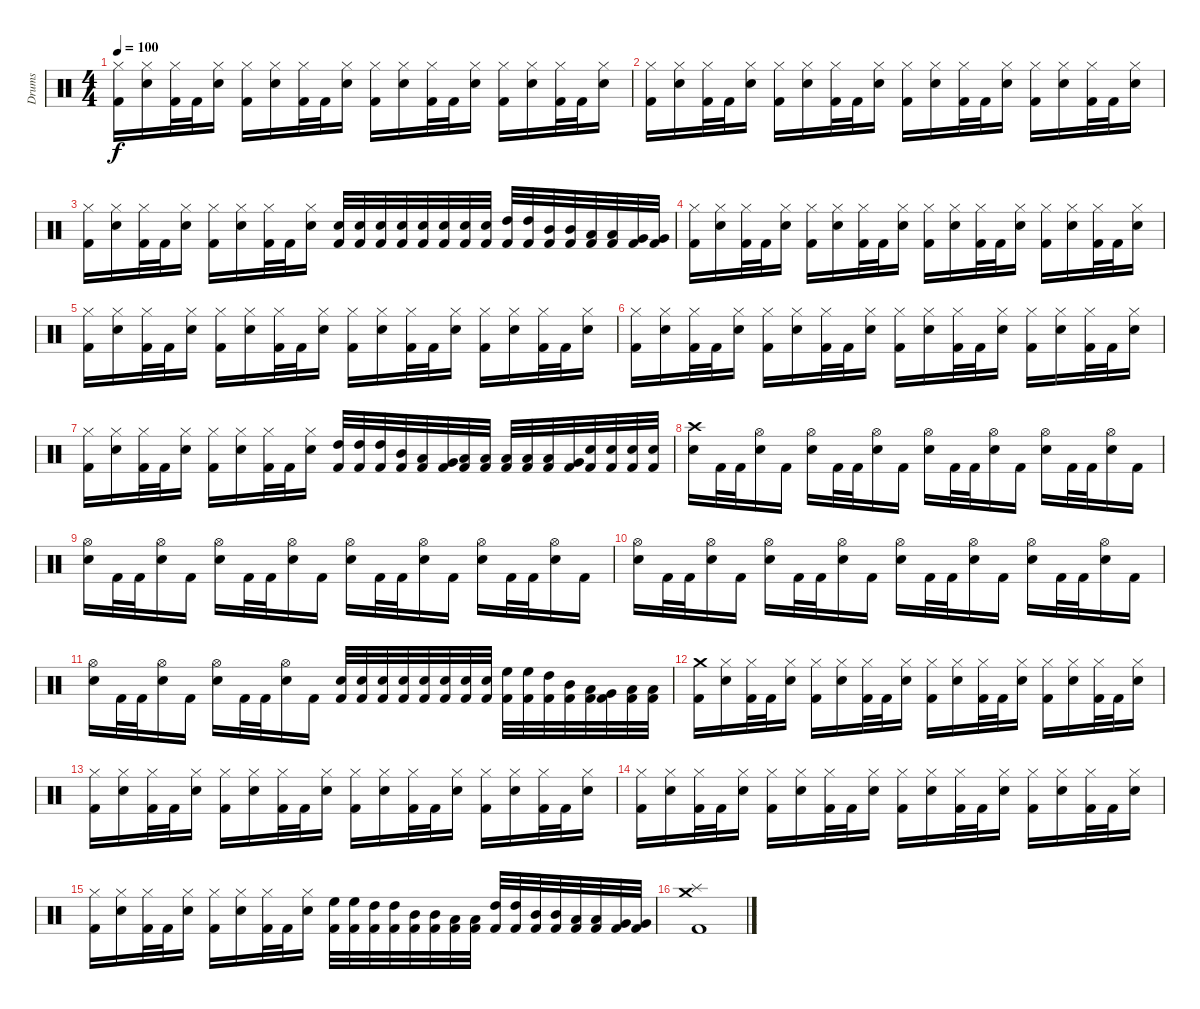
\track ("Drums" "Drums") {instrument percussion}
\staff {score}
\articulation defaults
\ts (4 4)
\tempo 100
\clef neutral
\ks c
("Kick (hit) 2" "Hi-Hat (closed)").16{dy f} ("Electric Snare (hit)" "Hi-Hat (closed)").16 ("Kick (hit) 2" "Hi-Hat (closed)").32 "Kick (hit) 2".32 ("Electric Snare (hit)" "Hi-Hat (closed)").16 ("Kick (hit) 2" "Hi-Hat (closed)").16 ("Electric Snare (hit)" "Hi-Hat (closed)").16 ("Kick (hit) 2" "Hi-Hat (closed)").32 "Kick (hit) 2".32 ("Electric Snare (hit)" "Hi-Hat (closed)").16 ("Kick (hit) 2" "Hi-Hat (closed)").16 ("Electric Snare (hit)" "Hi-Hat (closed)").16 ("Kick (hit) 2" "Hi-Hat (closed)").32 "Kick (hit) 2".32 ("Electric Snare (hit)" "Hi-Hat (closed)").16 ("Kick (hit) 2" "Hi-Hat (closed)").16 ("Electric Snare (hit)" "Hi-Hat (closed)").16 ("Kick (hit) 2" "Hi-Hat (closed)").32 "Kick (hit) 2".32 ("Electric Snare (hit)" "Hi-Hat (closed)").16 |
("Kick (hit) 2" "Hi-Hat (closed)").16 ("Electric Snare (hit)" "Hi-Hat (closed)").16 ("Kick (hit) 2" "Hi-Hat (closed)").32 "Kick (hit) 2".32 ("Electric Snare (hit)" "Hi-Hat (closed)").16 ("Kick (hit) 2" "Hi-Hat (closed)").16 ("Electric Snare (hit)" "Hi-Hat (closed)").16 ("Kick (hit) 2" "Hi-Hat (closed)").32 "Kick (hit) 2".32 ("Electric Snare (hit)" "Hi-Hat (closed)").16 ("Kick (hit) 2" "Hi-Hat (closed)").16 ("Electric Snare (hit)" "Hi-Hat (closed)").16 ("Kick (hit) 2" "Hi-Hat (closed)").32 "Kick (hit) 2".32 ("Electric Snare (hit)" "Hi-Hat (closed)").16 ("Kick (hit) 2" "Hi-Hat (closed)").16 ("Electric Snare (hit)" "Hi-Hat (closed)").16 ("Kick (hit) 2" "Hi-Hat (closed)").32 "Kick (hit) 2".32 ("Electric Snare (hit)" "Hi-Hat (closed)").16 |
("Kick (hit) 2" "Hi-Hat (closed)").16 ("Electric Snare (hit)" "Hi-Hat (closed)").16 ("Kick (hit) 2" "Hi-Hat (closed)").32 "Kick (hit) 2".32 ("Electric Snare (hit)" "Hi-Hat (closed)").16 ("Kick (hit) 2" "Hi-Hat (closed)").16 ("Electric Snare (hit)" "Hi-Hat (closed)").16 ("Kick (hit) 2" "Hi-Hat (closed)").32 "Kick (hit) 2".32 ("Electric Snare (hit)" "Hi-Hat (closed)").16 ("Kick (hit) 2" "Electric Snare (hit)").32 ("Kick (hit) 2" "Electric Snare (hit)").32 ("Kick (hit) 2" "Electric Snare (hit)").32 ("Kick (hit) 2" "Electric Snare (hit)").32 ("Kick (hit) 2" "Electric Snare (hit)").32 ("Kick (hit) 2" "Electric Snare (hit)").32 ("Kick (hit) 2" "Electric Snare (hit)").32 ("Kick (hit) 2" "Electric Snare (hit)").32 ("Kick (hit) 2" "High Tom (hit)").32 ("Kick (hit) 2" "High Tom (hit)").32 ("Kick (hit) 2" "Mid Tom (hit)").32 ("Kick (hit) 2" "Mid Tom (hit)").32 ("Kick (hit) 2" "Low Tom (hit)").32 ("Kick (hit) 2" "Low Tom (hit)").32 ("Kick (hit) 2" "Very Low Tom (hit)").32 ("Kick (hit) 2" "Very Low Tom (hit)").32 |
("Kick (hit) 2" "Hi-Hat (closed)").16 ("Electric Snare (hit)" "Hi-Hat (closed)").16 ("Kick (hit) 2" "Hi-Hat (closed)").32 "Kick (hit) 2".32 ("Electric Snare (hit)" "Hi-Hat (closed)").16 ("Kick (hit) 2" "Hi-Hat (closed)").16 ("Electric Snare (hit)" "Hi-Hat (closed)").16 ("Kick (hit) 2" "Hi-Hat (closed)").32 "Kick (hit) 2".32 ("Electric Snare (hit)" "Hi-Hat (closed)").16 ("Kick (hit) 2" "Hi-Hat (closed)").16 ("Electric Snare (hit)" "Hi-Hat (closed)").16 ("Kick (hit) 2" "Hi-Hat (closed)").32 "Kick (hit) 2".32 ("Electric Snare (hit)" "Hi-Hat (closed)").16 ("Kick (hit) 2" "Hi-Hat (closed)").16 ("Electric Snare (hit)" "Hi-Hat (closed)").16 ("Kick (hit) 2" "Hi-Hat (closed)").32 "Kick (hit) 2".32 ("Electric Snare (hit)" "Hi-Hat (closed)").16 |
("Kick (hit) 2" "Hi-Hat (closed)").16 ("Electric Snare (hit)" "Hi-Hat (closed)").16 ("Kick (hit) 2" "Hi-Hat (closed)").32 "Kick (hit) 2".32 ("Electric Snare (hit)" "Hi-Hat (closed)").16 ("Kick (hit) 2" "Hi-Hat (closed)").16 ("Electric Snare (hit)" "Hi-Hat (closed)").16 ("Kick (hit) 2" "Hi-Hat (closed)").32 "Kick (hit) 2".32 ("Electric Snare (hit)" "Hi-Hat (closed)").16 ("Kick (hit) 2" "Hi-Hat (closed)").16 ("Electric Snare (hit)" "Hi-Hat (closed)").16 ("Kick (hit) 2" "Hi-Hat (closed)").32 "Kick (hit) 2".32 ("Electric Snare (hit)" "Hi-Hat (closed)").16 ("Kick (hit) 2" "Hi-Hat (closed)").16 ("Electric Snare (hit)" "Hi-Hat (closed)").16 ("Kick (hit) 2" "Hi-Hat (closed)").32 "Kick (hit) 2".32 ("Electric Snare (hit)" "Hi-Hat (closed)").16 |
("Kick (hit) 2" "Hi-Hat (closed)").16 ("Electric Snare (hit)" "Hi-Hat (closed)").16 ("Kick (hit) 2" "Hi-Hat (closed)").32 "Kick (hit) 2".32 ("Electric Snare (hit)" "Hi-Hat (closed)").16 ("Kick (hit) 2" "Hi-Hat (closed)").16 ("Electric Snare (hit)" "Hi-Hat (closed)").16 ("Kick (hit) 2" "Hi-Hat (closed)").32 "Kick (hit) 2".32 ("Electric Snare (hit)" "Hi-Hat (closed)").16 ("Kick (hit) 2" "Hi-Hat (closed)").16 ("Electric Snare (hit)" "Hi-Hat (closed)").16 ("Kick (hit) 2" "Hi-Hat (closed)").32 "Kick (hit) 2".32 ("Electric Snare (hit)" "Hi-Hat (closed)").16 ("Kick (hit) 2" "Hi-Hat (closed)").16 ("Electric Snare (hit)" "Hi-Hat (closed)").16 ("Kick (hit) 2" "Hi-Hat (closed)").32 "Kick (hit) 2".32 ("Electric Snare (hit)" "Hi-Hat (closed)").16 |
("Kick (hit) 2" "Hi-Hat (closed)").16 ("Electric Snare (hit)" "Hi-Hat (closed)").16 ("Kick (hit) 2" "Hi-Hat (closed)").32 "Kick (hit) 2".32 ("Electric Snare (hit)" "Hi-Hat (closed)").16 ("Kick (hit) 2" "Hi-Hat (closed)").16 ("Electric Snare (hit)" "Hi-Hat (closed)").16 ("Kick (hit) 2" "Hi-Hat (closed)").32 "Kick (hit) 2".32 ("Electric Snare (hit)" "Hi-Hat (closed)").16 ("Kick (hit) 2" "High Tom (hit)").32 ("Kick (hit) 2" "High Tom (hit)").32 ("Kick (hit) 2" "High Tom (hit)").32 ("Kick (hit) 2" "Mid Tom (hit)").32 ("Kick (hit) 2" "Low Tom (hit)").32 ("Kick (hit) 2" "Very Low Tom (hit)").32 ("Kick (hit) 2" "Low Floor Tom (hit)").32 ("Kick (hit) 2" "Low Floor Tom (hit)").32 ("Kick (hit) 2" "Low Tom (hit)").32 ("Kick (hit) 2" "Low Tom (hit)").32 ("Kick (hit) 2" "Low Tom (hit)").32 ("Kick (hit) 2" "Very Low Tom (hit)").32 ("Kick (hit) 2" "Electric Snare (hit)").32 ("Kick (hit) 2" "Electric Snare (hit)").32 ("Kick (hit) 2" "Electric Snare (hit)").32 ("Kick (hit) 2" "Electric Snare (hit)").32 |
\section ("" "")
("Electric Snare (hit)" "Crash high (hit)").16 "Kick (hit) 2".32 "Kick (hit) 2".32 ("Electric Snare (hit)" "Hi-Hat (open)").16 "Kick (hit) 2".16 ("Electric Snare (hit)" "Hi-Hat (open)").16 "Kick (hit) 2".32 "Kick (hit) 2".32 ("Electric Snare (hit)" "Hi-Hat (open)").16 "Kick (hit) 2".16 ("Electric Snare (hit)" "Hi-Hat (open)").16 "Kick (hit) 2".32 "Kick (hit) 2".32 ("Electric Snare (hit)" "Hi-Hat (open)").16 "Kick (hit) 2".16 ("Electric Snare (hit)" "Hi-Hat (open)").16 "Kick (hit) 2".32 "Kick (hit) 2".32 ("Electric Snare (hit)" "Hi-Hat (open)").16 "Kick (hit) 2".16 |
("Electric Snare (hit)" "Hi-Hat (open)").16 "Kick (hit) 2".32 "Kick (hit) 2".32 ("Electric Snare (hit)" "Hi-Hat (open)").16 "Kick (hit) 2".16 ("Electric Snare (hit)" "Hi-Hat (open)").16 "Kick (hit) 2".32 "Kick (hit) 2".32 ("Electric Snare (hit)" "Hi-Hat (open)").16 "Kick (hit) 2".16 ("Electric Snare (hit)" "Hi-Hat (open)").16 "Kick (hit) 2".32 "Kick (hit) 2".32 ("Electric Snare (hit)" "Hi-Hat (open)").16 "Kick (hit) 2".16 ("Electric Snare (hit)" "Hi-Hat (open)").16 "Kick (hit) 2".32 "Kick (hit) 2".32 ("Electric Snare (hit)" "Hi-Hat (open)").16 "Kick (hit) 2".16 |
("Electric Snare (hit)" "Hi-Hat (open)").16 "Kick (hit) 2".32 "Kick (hit) 2".32 ("Electric Snare (hit)" "Hi-Hat (open)").16 "Kick (hit) 2".16 ("Electric Snare (hit)" "Hi-Hat (open)").16 "Kick (hit) 2".32 "Kick (hit) 2".32 ("Electric Snare (hit)" "Hi-Hat (open)").16 "Kick (hit) 2".16 ("Electric Snare (hit)" "Hi-Hat (open)").16 "Kick (hit) 2".32 "Kick (hit) 2".32 ("Electric Snare (hit)" "Hi-Hat (open)").16 "Kick (hit) 2".16 ("Electric Snare (hit)" "Hi-Hat (open)").16 "Kick (hit) 2".32 "Kick (hit) 2".32 ("Electric Snare (hit)" "Hi-Hat (open)").16 "Kick (hit) 2".16 |
("Electric Snare (hit)" "Hi-Hat (open)").16 "Kick (hit) 2".32 "Kick (hit) 2".32 ("Electric Snare (hit)" "Hi-Hat (open)").16 "Kick (hit) 2".16 ("Electric Snare (hit)" "Hi-Hat (open)").16 "Kick (hit) 2".32 "Kick (hit) 2".32 ("Electric Snare (hit)" "Hi-Hat (open)").16 "Kick (hit) 2".16 ("Kick (hit) 2" "Electric Snare (hit)").32 ("Kick (hit) 2" "Electric Snare (hit)").32 ("Kick (hit) 2" "Electric Snare (hit)").32 ("Kick (hit) 2" "Electric Snare (hit)").32 ("Kick (hit) 2" "Electric Snare (hit)").32 ("Kick (hit) 2" "Electric Snare (hit)").32 ("Kick (hit) 2" "Electric Snare (hit)").32 ("Kick (hit) 2" "Electric Snare (hit)").32 ("Kick (hit) 2" "High Floor Tom (hit)").32 ("Kick (hit) 2" "High Floor Tom (hit)").32 ("Kick (hit) 2" "High Tom (hit)").32 ("Kick (hit) 2" "Mid Tom (hit)").32 ("Kick (hit) 2" "Low Tom (hit)").32 ("Kick (hit) 2" "Very Low Tom (hit)").32 ("Kick (hit) 2" "Low Floor Tom (hit)").32 ("Kick (hit) 2" "Low Floor Tom (hit)").32 |
\section ("" "")
("Kick (hit) 2" "Crash medium (hit)").16 ("Electric Snare (hit)" "Hi-Hat (closed)").16 ("Kick (hit) 2" "Hi-Hat (closed)").32 "Kick (hit) 2".32 ("Electric Snare (hit)" "Hi-Hat (closed)").16 ("Kick (hit) 2" "Hi-Hat (closed)").16 ("Electric Snare (hit)" "Hi-Hat (closed)").16 ("Kick (hit) 2" "Hi-Hat (closed)").32 "Kick (hit) 2".32 ("Electric Snare (hit)" "Hi-Hat (closed)").16 ("Kick (hit) 2" "Hi-Hat (closed)").16 ("Electric Snare (hit)" "Hi-Hat (closed)").16 ("Kick (hit) 2" "Hi-Hat (closed)").32 "Kick (hit) 2".32 ("Electric Snare (hit)" "Hi-Hat (closed)").16 ("Kick (hit) 2" "Hi-Hat (closed)").16 ("Electric Snare (hit)" "Hi-Hat (closed)").16 ("Kick (hit) 2" "Hi-Hat (closed)").32 "Kick (hit) 2".32 ("Electric Snare (hit)" "Hi-Hat (closed)").16 |
("Kick (hit) 2" "Hi-Hat (closed)").16 ("Electric Snare (hit)" "Hi-Hat (closed)").16 ("Kick (hit) 2" "Hi-Hat (closed)").32 "Kick (hit) 2".32 ("Electric Snare (hit)" "Hi-Hat (closed)").16 ("Kick (hit) 2" "Hi-Hat (closed)").16 ("Electric Snare (hit)" "Hi-Hat (closed)").16 ("Kick (hit) 2" "Hi-Hat (closed)").32 "Kick (hit) 2".32 ("Electric Snare (hit)" "Hi-Hat (closed)").16 ("Kick (hit) 2" "Hi-Hat (closed)").16 ("Electric Snare (hit)" "Hi-Hat (closed)").16 ("Kick (hit) 2" "Hi-Hat (closed)").32 "Kick (hit) 2".32 ("Electric Snare (hit)" "Hi-Hat (closed)").16 ("Kick (hit) 2" "Hi-Hat (closed)").16 ("Electric Snare (hit)" "Hi-Hat (closed)").16 ("Kick (hit) 2" "Hi-Hat (closed)").32 "Kick (hit) 2".32 ("Electric Snare (hit)" "Hi-Hat (closed)").16 |
("Kick (hit) 2" "Hi-Hat (closed)").16 ("Electric Snare (hit)" "Hi-Hat (closed)").16 ("Kick (hit) 2" "Hi-Hat (closed)").32 "Kick (hit) 2".32 ("Electric Snare (hit)" "Hi-Hat (closed)").16 ("Kick (hit) 2" "Hi-Hat (closed)").16 ("Electric Snare (hit)" "Hi-Hat (closed)").16 ("Kick (hit) 2" "Hi-Hat (closed)").32 "Kick (hit) 2".32 ("Electric Snare (hit)" "Hi-Hat (closed)").16 ("Kick (hit) 2" "Hi-Hat (closed)").16 ("Electric Snare (hit)" "Hi-Hat (closed)").16 ("Kick (hit) 2" "Hi-Hat (closed)").32 "Kick (hit) 2".32 ("Electric Snare (hit)" "Hi-Hat (closed)").16 ("Kick (hit) 2" "Hi-Hat (closed)").16 ("Electric Snare (hit)" "Hi-Hat (closed)").16 ("Kick (hit) 2" "Hi-Hat (closed)").32 "Kick (hit) 2".32 ("Electric Snare (hit)" "Hi-Hat (closed)").16 |
("Kick (hit) 2" "Hi-Hat (closed)").16 ("Electric Snare (hit)" "Hi-Hat (closed)").16 ("Kick (hit) 2" "Hi-Hat (closed)").32 "Kick (hit) 2".32 ("Electric Snare (hit)" "Hi-Hat (closed)").16 ("Kick (hit) 2" "Hi-Hat (closed)").16 ("Electric Snare (hit)" "Hi-Hat (closed)").16 ("Kick (hit) 2" "Hi-Hat (closed)").32 "Kick (hit) 2".32 ("Electric Snare (hit)" "Hi-Hat (closed)").16 ("Kick (hit) 2" "High Floor Tom (hit)").32 ("Kick (hit) 2" "High Floor Tom (hit)").32 ("Kick (hit) 2" "High Tom (hit)").32 ("Kick (hit) 2" "High Tom (hit)").32 ("Kick (hit) 2" "Mid Tom (hit)").32 ("Kick (hit) 2" "Mid Tom (hit)").32 ("Kick (hit) 2" "Low Tom (hit)").32 ("Kick (hit) 2" "Low Tom (hit)").32 ("Kick (hit) 2" "High Tom (hit)").32 ("Kick (hit) 2" "High Tom (hit)").32 ("Kick (hit) 2" "Mid Tom (hit)").32 ("Kick (hit) 2" "Mid Tom (hit)").32 ("Kick (hit) 2" "Low Tom (hit)").32 ("Kick (hit) 2" "Low Tom (hit)").32 ("Kick (hit) 2" "Very Low Tom (hit)").32 ("Kick (hit) 2" "Very Low Tom (hit)").32 |
\section ("" "")
("Kick (hit) 2" "Crash medium (hit)" "Splash (hit)").1
